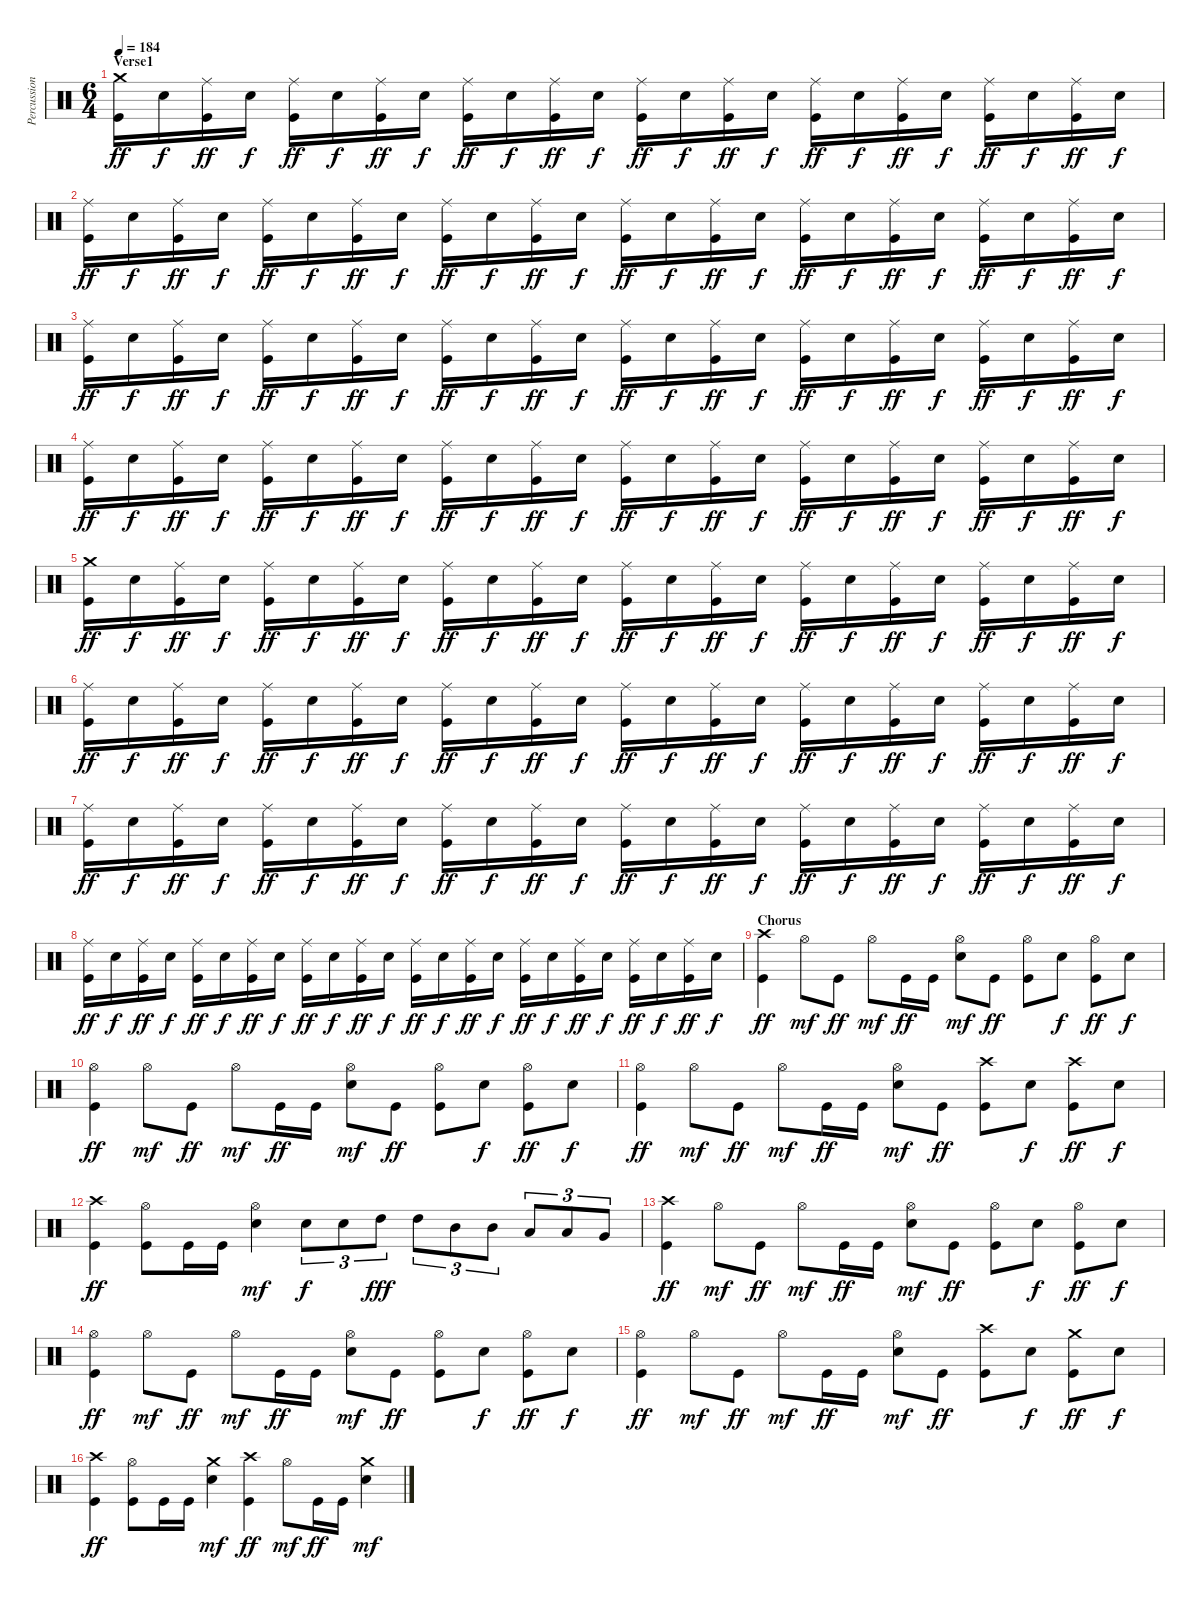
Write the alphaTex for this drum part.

\track ("Percussion" "Percussion") {instrument percussion}
\staff {score}
\articulation defaults
\ts (6 4)
\section ("" "Verse1")
\tempo 184
\clef neutral
\ks c
("Crash medium (hit)" "Kick (hit)").16{dy ff} "Electric Snare (hit)".16{dy f} ("Ride (middle)" "Kick (hit)").16{dy ff} "Electric Snare (hit)".16{dy f} ("Ride (middle)" "Kick (hit)").16{dy ff} "Electric Snare (hit)".16{dy f} ("Ride (middle)" "Kick (hit)").16{dy ff} "Electric Snare (hit)".16{dy f} ("Ride (middle)" "Kick (hit)").16{dy ff} "Electric Snare (hit)".16{dy f} ("Ride (middle)" "Kick (hit)").16{dy ff} "Electric Snare (hit)".16{dy f} ("Ride (middle)" "Kick (hit)").16{dy ff} "Electric Snare (hit)".16{dy f} ("Ride (middle)" "Kick (hit)").16{dy ff} "Electric Snare (hit)".16{dy f} ("Ride (middle)" "Kick (hit)").16{dy ff} "Electric Snare (hit)".16{dy f} ("Ride (middle)" "Kick (hit)").16{dy ff} "Electric Snare (hit)".16{dy f} ("Ride (middle)" "Kick (hit)").16{dy ff} "Electric Snare (hit)".16{dy f} ("Ride (middle)" "Kick (hit)").16{dy ff} "Electric Snare (hit)".16{dy f} |
("Ride (middle)" "Kick (hit)").16{dy ff} "Electric Snare (hit)".16{dy f} ("Ride (middle)" "Kick (hit)").16{dy ff} "Electric Snare (hit)".16{dy f} ("Ride (middle)" "Kick (hit)").16{dy ff} "Electric Snare (hit)".16{dy f} ("Ride (middle)" "Kick (hit)").16{dy ff} "Electric Snare (hit)".16{dy f} ("Ride (middle)" "Kick (hit)").16{dy ff} "Electric Snare (hit)".16{dy f} ("Ride (middle)" "Kick (hit)").16{dy ff} "Electric Snare (hit)".16{dy f} ("Ride (middle)" "Kick (hit)").16{dy ff} "Electric Snare (hit)".16{dy f} ("Ride (middle)" "Kick (hit)").16{dy ff} "Electric Snare (hit)".16{dy f} ("Ride (middle)" "Kick (hit)").16{dy ff} "Electric Snare (hit)".16{dy f} ("Ride (middle)" "Kick (hit)").16{dy ff} "Electric Snare (hit)".16{dy f} ("Ride (middle)" "Kick (hit)").16{dy ff} "Electric Snare (hit)".16{dy f} ("Ride (middle)" "Kick (hit)").16{dy ff} "Electric Snare (hit)".16{dy f} |
("Ride (middle)" "Kick (hit)").16{dy ff} "Electric Snare (hit)".16{dy f} ("Ride (middle)" "Kick (hit)").16{dy ff} "Electric Snare (hit)".16{dy f} ("Ride (middle)" "Kick (hit)").16{dy ff} "Electric Snare (hit)".16{dy f} ("Ride (middle)" "Kick (hit)").16{dy ff} "Electric Snare (hit)".16{dy f} ("Ride (middle)" "Kick (hit)").16{dy ff} "Electric Snare (hit)".16{dy f} ("Ride (middle)" "Kick (hit)").16{dy ff} "Electric Snare (hit)".16{dy f} ("Ride (middle)" "Kick (hit)").16{dy ff} "Electric Snare (hit)".16{dy f} ("Ride (middle)" "Kick (hit)").16{dy ff} "Electric Snare (hit)".16{dy f} ("Ride (middle)" "Kick (hit)").16{dy ff} "Electric Snare (hit)".16{dy f} ("Ride (middle)" "Kick (hit)").16{dy ff} "Electric Snare (hit)".16{dy f} ("Ride (middle)" "Kick (hit)").16{dy ff} "Electric Snare (hit)".16{dy f} ("Ride (middle)" "Kick (hit)").16{dy ff} "Electric Snare (hit)".16{dy f} |
("Ride (middle)" "Kick (hit)").16{dy ff} "Electric Snare (hit)".16{dy f} ("Ride (middle)" "Kick (hit)").16{dy ff} "Electric Snare (hit)".16{dy f} ("Ride (middle)" "Kick (hit)").16{dy ff} "Electric Snare (hit)".16{dy f} ("Ride (middle)" "Kick (hit)").16{dy ff} "Electric Snare (hit)".16{dy f} ("Ride (middle)" "Kick (hit)").16{dy ff} "Electric Snare (hit)".16{dy f} ("Ride (middle)" "Kick (hit)").16{dy ff} "Electric Snare (hit)".16{dy f} ("Ride (middle)" "Kick (hit)").16{dy ff} "Electric Snare (hit)".16{dy f} ("Ride (middle)" "Kick (hit)").16{dy ff} "Electric Snare (hit)".16{dy f} ("Ride (middle)" "Kick (hit)").16{dy ff} "Electric Snare (hit)".16{dy f} ("Ride (middle)" "Kick (hit)").16{dy ff} "Electric Snare (hit)".16{dy f} ("Ride (middle)" "Kick (hit)").16{dy ff} "Electric Snare (hit)".16{dy f} ("Ride (middle)" "Kick (hit)").16{dy ff} "Electric Snare (hit)".16{dy f} |
("Crash medium (hit)" "Kick (hit)").16{dy ff} "Electric Snare (hit)".16{dy f} ("Ride (middle)" "Kick (hit)").16{dy ff} "Electric Snare (hit)".16{dy f} ("Ride (middle)" "Kick (hit)").16{dy ff} "Electric Snare (hit)".16{dy f} ("Ride (middle)" "Kick (hit)").16{dy ff} "Electric Snare (hit)".16{dy f} ("Ride (middle)" "Kick (hit)").16{dy ff} "Electric Snare (hit)".16{dy f} ("Ride (middle)" "Kick (hit)").16{dy ff} "Electric Snare (hit)".16{dy f} ("Ride (middle)" "Kick (hit)").16{dy ff} "Electric Snare (hit)".16{dy f} ("Ride (middle)" "Kick (hit)").16{dy ff} "Electric Snare (hit)".16{dy f} ("Ride (middle)" "Kick (hit)").16{dy ff} "Electric Snare (hit)".16{dy f} ("Ride (middle)" "Kick (hit)").16{dy ff} "Electric Snare (hit)".16{dy f} ("Ride (middle)" "Kick (hit)").16{dy ff} "Electric Snare (hit)".16{dy f} ("Ride (middle)" "Kick (hit)").16{dy ff} "Electric Snare (hit)".16{dy f} |
("Ride (middle)" "Kick (hit)").16{dy ff} "Electric Snare (hit)".16{dy f} ("Ride (middle)" "Kick (hit)").16{dy ff} "Electric Snare (hit)".16{dy f} ("Ride (middle)" "Kick (hit)").16{dy ff} "Electric Snare (hit)".16{dy f} ("Ride (middle)" "Kick (hit)").16{dy ff} "Electric Snare (hit)".16{dy f} ("Ride (middle)" "Kick (hit)").16{dy ff} "Electric Snare (hit)".16{dy f} ("Ride (middle)" "Kick (hit)").16{dy ff} "Electric Snare (hit)".16{dy f} ("Ride (middle)" "Kick (hit)").16{dy ff} "Electric Snare (hit)".16{dy f} ("Ride (middle)" "Kick (hit)").16{dy ff} "Electric Snare (hit)".16{dy f} ("Ride (middle)" "Kick (hit)").16{dy ff} "Electric Snare (hit)".16{dy f} ("Ride (middle)" "Kick (hit)").16{dy ff} "Electric Snare (hit)".16{dy f} ("Ride (middle)" "Kick (hit)").16{dy ff} "Electric Snare (hit)".16{dy f} ("Ride (middle)" "Kick (hit)").16{dy ff} "Electric Snare (hit)".16{dy f} |
("Ride (middle)" "Kick (hit)").16{dy ff} "Electric Snare (hit)".16{dy f} ("Ride (middle)" "Kick (hit)").16{dy ff} "Electric Snare (hit)".16{dy f} ("Ride (middle)" "Kick (hit)").16{dy ff} "Electric Snare (hit)".16{dy f} ("Ride (middle)" "Kick (hit)").16{dy ff} "Electric Snare (hit)".16{dy f} ("Ride (middle)" "Kick (hit)").16{dy ff} "Electric Snare (hit)".16{dy f} ("Ride (middle)" "Kick (hit)").16{dy ff} "Electric Snare (hit)".16{dy f} ("Ride (middle)" "Kick (hit)").16{dy ff} "Electric Snare (hit)".16{dy f} ("Ride (middle)" "Kick (hit)").16{dy ff} "Electric Snare (hit)".16{dy f} ("Ride (middle)" "Kick (hit)").16{dy ff} "Electric Snare (hit)".16{dy f} ("Ride (middle)" "Kick (hit)").16{dy ff} "Electric Snare (hit)".16{dy f} ("Ride (middle)" "Kick (hit)").16{dy ff} "Electric Snare (hit)".16{dy f} ("Ride (middle)" "Kick (hit)").16{dy ff} "Electric Snare (hit)".16{dy f} |
("Ride (middle)" "Kick (hit)").16{dy ff} "Electric Snare (hit)".16{dy f} ("Ride (middle)" "Kick (hit)").16{dy ff} "Electric Snare (hit)".16{dy f} ("Ride (middle)" "Kick (hit)").16{dy ff} "Electric Snare (hit)".16{dy f} ("Ride (middle)" "Kick (hit)").16{dy ff} "Electric Snare (hit)".16{dy f} ("Ride (middle)" "Kick (hit)").16{dy ff} "Electric Snare (hit)".16{dy f} ("Ride (middle)" "Kick (hit)").16{dy ff} "Electric Snare (hit)".16{dy f} ("Ride (middle)" "Kick (hit)").16{dy ff} "Electric Snare (hit)".16{dy f} ("Ride (middle)" "Kick (hit)").16{dy ff} "Electric Snare (hit)".16{dy f} ("Ride (middle)" "Kick (hit)").16{dy ff} "Electric Snare (hit)".16{dy f} ("Ride (middle)" "Kick (hit)").16{dy ff} "Electric Snare (hit)".16{dy f} ("Ride (middle)" "Kick (hit)").16{dy ff} "Electric Snare (hit)".16{dy f} ("Ride (middle)" "Kick (hit)").16{dy ff} "Electric Snare (hit)".16{dy f} |
\section ("" "Chorus")
("Crash high (hit)" "Kick (hit)").4{dy ff} "Hi-Hat (open)".8{dy mf} "Kick (hit)".8{dy ff} "Hi-Hat (open)".8{dy mf} "Kick (hit)".16{dy ff} "Kick (hit)".16 ("Hi-Hat (open)" "Electric Snare (hit)").8{dy mf} "Kick (hit)".8{dy ff} ("Hi-Hat (open)" "Kick (hit)").8 "Electric Snare (hit)".8{dy f} ("Hi-Hat (open)" "Kick (hit)").8{dy ff} "Electric Snare (hit)".8{dy f} |
("Hi-Hat (open)" "Kick (hit)").4{dy ff} "Hi-Hat (open)".8{dy mf} "Kick (hit)".8{dy ff} "Hi-Hat (open)".8{dy mf} "Kick (hit)".16{dy ff} "Kick (hit)".16 ("Hi-Hat (open)" "Electric Snare (hit)").8{dy mf} "Kick (hit)".8{dy ff} ("Hi-Hat (open)" "Kick (hit)").8 "Electric Snare (hit)".8{dy f} ("Hi-Hat (open)" "Kick (hit)").8{dy ff} "Electric Snare (hit)".8{dy f} |
("Hi-Hat (open)" "Kick (hit)").4{dy ff} "Hi-Hat (open)".8{dy mf} "Kick (hit)".8{dy ff} "Hi-Hat (open)".8{dy mf} "Kick (hit)".16{dy ff} "Kick (hit)".16 ("Hi-Hat (open)" "Electric Snare (hit)").8{dy mf} "Kick (hit)".8{dy ff} ("Crash high (hit)" "Kick (hit)").8 "Electric Snare (hit)".8{dy f} ("Crash high (hit)" "Kick (hit)").8{dy ff} "Electric Snare (hit)".8{dy f} |
("Crash high (hit)" "Kick (hit)").4{dy ff} ("Hi-Hat (open)" "Kick (hit)").8 "Kick (hit)".16 "Kick (hit)".16 ("Hi-Hat (open)" "Electric Snare (hit)").4{dy mf} "Electric Snare (hit)".8{tu (3 2) dy f} "Electric Snare (hit)".8{tu (3 2)} "High Tom (hit)".8{tu (3 2) dy fff} "High Tom (hit)".8{tu (3 2)} "Mid Tom (hit)".8{tu (3 2)} "Mid Tom (hit)".8{tu (3 2)} "Low Tom (hit)".8{tu (3 2)} "Low Tom (hit)".8{tu (3 2)} "Very Low Tom (hit)".8{tu (3 2)} |
("Crash high (hit)" "Kick (hit)").4{dy ff} "Hi-Hat (open)".8{dy mf} "Kick (hit)".8{dy ff} "Hi-Hat (open)".8{dy mf} "Kick (hit)".16{dy ff} "Kick (hit)".16 ("Hi-Hat (open)" "Electric Snare (hit)").8{dy mf} "Kick (hit)".8{dy ff} ("Hi-Hat (open)" "Kick (hit)").8 "Electric Snare (hit)".8{dy f} ("Hi-Hat (open)" "Kick (hit)").8{dy ff} "Electric Snare (hit)".8{dy f} |
("Hi-Hat (open)" "Kick (hit)").4{dy ff} "Hi-Hat (open)".8{dy mf} "Kick (hit)".8{dy ff} "Hi-Hat (open)".8{dy mf} "Kick (hit)".16{dy ff} "Kick (hit)".16 ("Hi-Hat (open)" "Electric Snare (hit)").8{dy mf} "Kick (hit)".8{dy ff} ("Hi-Hat (open)" "Kick (hit)").8 "Electric Snare (hit)".8{dy f} ("Hi-Hat (open)" "Kick (hit)").8{dy ff} "Electric Snare (hit)".8{dy f} |
("Hi-Hat (open)" "Kick (hit)").4{dy ff} "Hi-Hat (open)".8{dy mf} "Kick (hit)".8{dy ff} "Hi-Hat (open)".8{dy mf} "Kick (hit)".16{dy ff} "Kick (hit)".16 ("Hi-Hat (open)" "Electric Snare (hit)").8{dy mf} "Kick (hit)".8{dy ff} ("Crash high (hit)" "Kick (hit)").8 "Electric Snare (hit)".8{dy f} ("Crash medium (hit)" "Kick (hit)").8{dy ff} "Electric Snare (hit)".8{dy f} |
("Crash high (hit)" "Kick (hit)").4{dy ff} ("Hi-Hat (open)" "Kick (hit)").8 "Kick (hit)".16 "Kick (hit)".16 ("Crash medium (hit)" "Electric Snare (hit)").4{dy mf} ("Crash high (hit)" "Kick (hit)").4{dy ff} "Hi-Hat (open)".8{dy mf} "Kick (hit)".16{dy ff} "Kick (hit)".16 ("Crash medium (hit)" "Electric Snare (hit)").4{dy mf}
